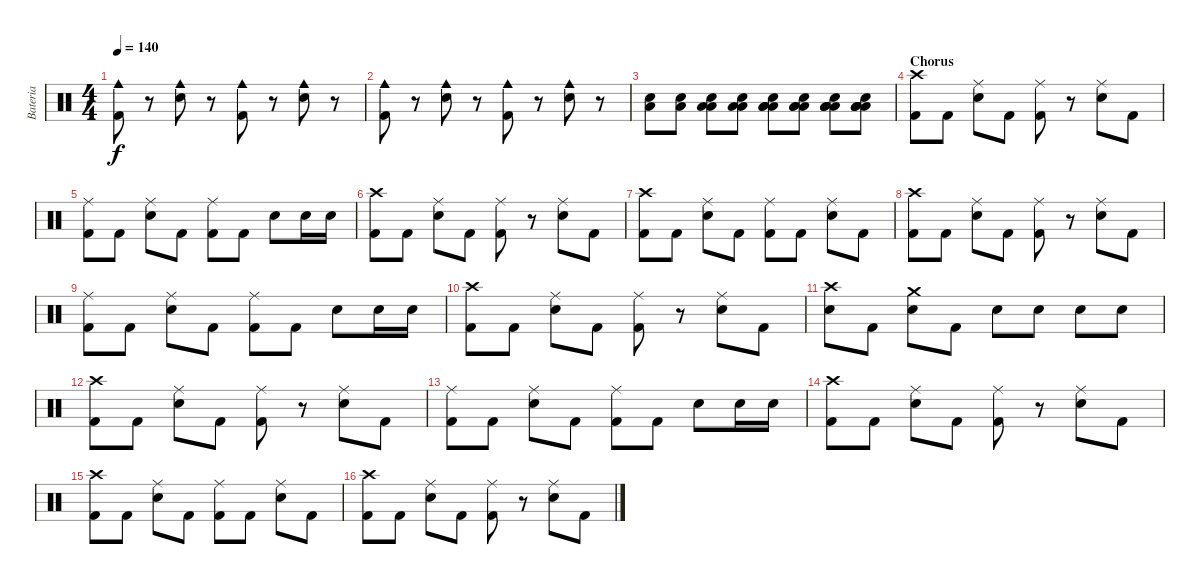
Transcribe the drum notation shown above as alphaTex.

\track ("Bateria" "Bateria") {instrument percussion}
\staff {score}
\articulation defaults
\ts (4 4)
\tempo 140
\clef neutral
\ks c
("Cowbell medium (hit)" "Kick (hit) 2").8{dy f} r.8 ("Cowbell medium (hit)" "Snare (hit) 2").8 r.8 ("Cowbell medium (hit)" "Kick (hit) 2").8 r.8 ("Cowbell medium (hit)" "Snare (hit) 2").8 r.8 |
("Cowbell medium (hit)" "Kick (hit) 2").8 r.8 ("Cowbell medium (hit)" "Snare (hit) 2").8 r.8 ("Cowbell medium (hit)" "Kick (hit) 2").8 r.8 ("Cowbell medium (hit)" "Snare (hit) 2").8 r.8 |
("Low Floor Tom (hit)" "Snare (hit) 2").8 ("Low Floor Tom (hit)" "Snare (hit) 2").8 ("Low Floor Tom (hit)" "Low Floor Tom (hit)" "Snare (hit) 2").8 ("Low Floor Tom (hit)" "Low Floor Tom (hit)" "Snare (hit) 2").8 ("Low Floor Tom (hit)" "Low Floor Tom (hit)" "Low Floor Tom (hit)" "Snare (hit) 2").8 ("Low Floor Tom (hit)" "Low Floor Tom (hit)" "Low Floor Tom (hit)" "Snare (hit) 2").8 ("Low Floor Tom (hit)" "Low Floor Tom (hit)" "Low Floor Tom (hit)" "Low Floor Tom (hit)" "Snare (hit) 2").8 ("Low Floor Tom (hit)" "Low Floor Tom (hit)" "Low Floor Tom (hit)" "Low Floor Tom (hit)" "Snare (hit) 2").8 |
\section ("" "Chorus")
("Crash high (hit)" "Kick (hit) 2").8 "Kick (hit) 2".8 ("Ride (middle)" "Snare (hit) 2").8 "Kick (hit) 2".8 ("Ride (middle)" "Kick (hit) 2").8 r.8 ("Ride (middle)" "Snare (hit) 2").8 "Kick (hit) 2".8 |
("Ride (middle)" "Kick (hit) 2").8 "Kick (hit) 2".8 ("Ride (middle)" "Snare (hit) 2").8 "Kick (hit) 2".8 ("Ride (middle)" "Kick (hit) 2").8 "Kick (hit) 2".8 "Snare (hit) 2".8 "Snare (hit) 2".16 "Snare (hit) 2".16 |
("Crash high (hit)" "Kick (hit) 2").8 "Kick (hit) 2".8 ("Ride (middle)" "Snare (hit) 2").8 "Kick (hit) 2".8 ("Ride (middle)" "Kick (hit) 2").8 r.8 ("Ride (middle)" "Snare (hit) 2").8 "Kick (hit) 2".8 |
("Crash high (hit)" "Kick (hit) 2").8 "Kick (hit) 2".8 ("Ride (middle)" "Snare (hit) 2").8 "Kick (hit) 2".8 ("Ride (middle)" "Kick (hit) 2").8 "Kick (hit) 2".8 ("Ride (middle)" "Snare (hit) 2").8 "Kick (hit) 2".8 |
("Crash high (hit)" "Kick (hit) 2").8 "Kick (hit) 2".8 ("Ride (middle)" "Snare (hit) 2").8 "Kick (hit) 2".8 ("Ride (middle)" "Kick (hit) 2").8 r.8 ("Ride (middle)" "Snare (hit) 2").8 "Kick (hit) 2".8 |
("Ride (middle)" "Kick (hit) 2").8 "Kick (hit) 2".8 ("Ride (middle)" "Snare (hit) 2").8 "Kick (hit) 2".8 ("Ride (middle)" "Kick (hit) 2").8 "Kick (hit) 2".8 "Snare (hit) 2".8 "Snare (hit) 2".16 "Snare (hit) 2".16 |
("Crash high (hit)" "Kick (hit) 2").8 "Kick (hit) 2".8 ("Ride (middle)" "Snare (hit) 2").8 "Kick (hit) 2".8 ("Ride (middle)" "Kick (hit) 2").8 r.8 ("Ride (middle)" "Snare (hit) 2").8 "Kick (hit) 2".8 |
("Crash high (hit)" "Snare (hit) 2").8 "Kick (hit) 2".8 ("Crash medium (hit)" "Snare (hit) 2").8 "Kick (hit) 2".8 "Snare (hit) 2".8 "Snare (hit) 2".8 "Snare (hit) 2".8 "Snare (hit) 2".8 |
("Crash high (hit)" "Kick (hit) 2").8 "Kick (hit) 2".8 ("Ride (middle)" "Snare (hit) 2").8 "Kick (hit) 2".8 ("Ride (middle)" "Kick (hit) 2").8 r.8 ("Ride (middle)" "Snare (hit) 2").8 "Kick (hit) 2".8 |
("Ride (middle)" "Kick (hit) 2").8 "Kick (hit) 2".8 ("Ride (middle)" "Snare (hit) 2").8 "Kick (hit) 2".8 ("Ride (middle)" "Kick (hit) 2").8 "Kick (hit) 2".8 "Snare (hit) 2".8 "Snare (hit) 2".16 "Snare (hit) 2".16 |
("Crash high (hit)" "Kick (hit) 2").8 "Kick (hit) 2".8 ("Ride (middle)" "Snare (hit) 2").8 "Kick (hit) 2".8 ("Ride (middle)" "Kick (hit) 2").8 r.8 ("Ride (middle)" "Snare (hit) 2").8 "Kick (hit) 2".8 |
("Crash high (hit)" "Kick (hit) 2").8 "Kick (hit) 2".8 ("Ride (middle)" "Snare (hit) 2").8 "Kick (hit) 2".8 ("Ride (middle)" "Kick (hit) 2").8 "Kick (hit) 2".8 ("Ride (middle)" "Snare (hit) 2").8 "Kick (hit) 2".8 |
("Crash high (hit)" "Kick (hit) 2").8 "Kick (hit) 2".8 ("Ride (middle)" "Snare (hit) 2").8 "Kick (hit) 2".8 ("Ride (middle)" "Kick (hit) 2").8 r.8 ("Ride (middle)" "Snare (hit) 2").8 "Kick (hit) 2".8
